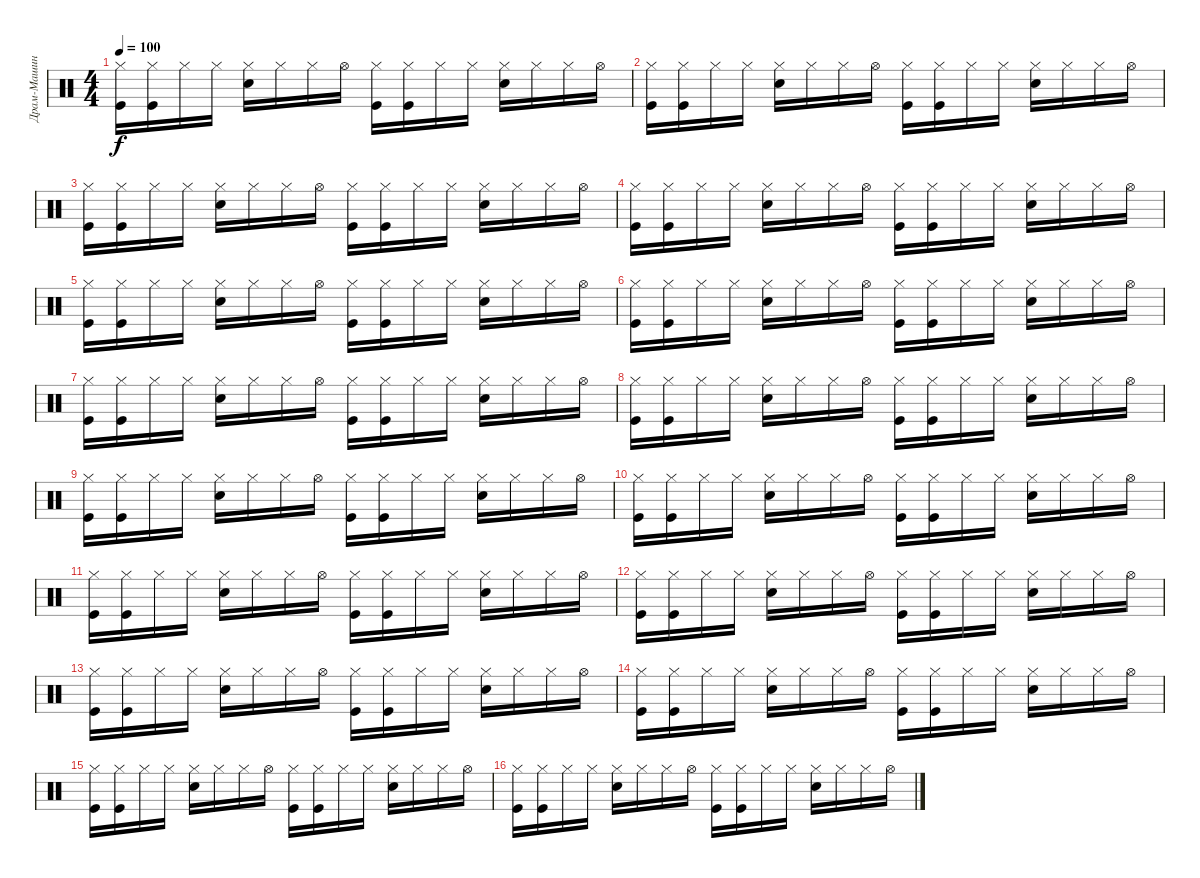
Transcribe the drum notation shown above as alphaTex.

\track ("Драм-Машина" "Драм-Машин") {instrument percussion}
\staff {score}
\articulation defaults
\ts (4 4)
\tempo 100
\clef neutral
\ks c
("Kick (hit)" "Hi-Hat (closed)").16{dy f} ("Kick (hit)" "Hi-Hat (closed)").16 "Hi-Hat (closed)".16 "Hi-Hat (closed)".16 ("Hi-Hat (closed)" "Electric Snare (hit)").16 "Hi-Hat (closed)".16 "Hi-Hat (closed)".16 "Hi-Hat (open)".16 ("Kick (hit)" "Hi-Hat (closed)").16 ("Kick (hit)" "Hi-Hat (closed)").16 "Hi-Hat (closed)".16 "Hi-Hat (closed)".16 ("Hi-Hat (closed)" "Electric Snare (hit)").16 "Hi-Hat (closed)".16 "Hi-Hat (closed)".16 "Hi-Hat (open)".16 |
("Kick (hit)" "Hi-Hat (closed)").16 ("Kick (hit)" "Hi-Hat (closed)").16 "Hi-Hat (closed)".16 "Hi-Hat (closed)".16 ("Hi-Hat (closed)" "Electric Snare (hit)").16 "Hi-Hat (closed)".16 "Hi-Hat (closed)".16 "Hi-Hat (open)".16 ("Kick (hit)" "Hi-Hat (closed)").16 ("Kick (hit)" "Hi-Hat (closed)").16 "Hi-Hat (closed)".16 "Hi-Hat (closed)".16 ("Hi-Hat (closed)" "Electric Snare (hit)").16 "Hi-Hat (closed)".16 "Hi-Hat (closed)".16 "Hi-Hat (open)".16 |
("Kick (hit)" "Hi-Hat (closed)").16 ("Kick (hit)" "Hi-Hat (closed)").16 "Hi-Hat (closed)".16 "Hi-Hat (closed)".16 ("Hi-Hat (closed)" "Electric Snare (hit)").16 "Hi-Hat (closed)".16 "Hi-Hat (closed)".16 "Hi-Hat (open)".16 ("Kick (hit)" "Hi-Hat (closed)").16 ("Kick (hit)" "Hi-Hat (closed)").16 "Hi-Hat (closed)".16 "Hi-Hat (closed)".16 ("Hi-Hat (closed)" "Electric Snare (hit)").16 "Hi-Hat (closed)".16 "Hi-Hat (closed)".16 "Hi-Hat (open)".16 |
("Kick (hit)" "Hi-Hat (closed)").16 ("Kick (hit)" "Hi-Hat (closed)").16 "Hi-Hat (closed)".16 "Hi-Hat (closed)".16 ("Hi-Hat (closed)" "Electric Snare (hit)").16 "Hi-Hat (closed)".16 "Hi-Hat (closed)".16 "Hi-Hat (open)".16 ("Kick (hit)" "Hi-Hat (closed)").16 ("Kick (hit)" "Hi-Hat (closed)").16 "Hi-Hat (closed)".16 "Hi-Hat (closed)".16 ("Hi-Hat (closed)" "Electric Snare (hit)").16 "Hi-Hat (closed)".16 "Hi-Hat (closed)".16 "Hi-Hat (open)".16 |
("Kick (hit)" "Hi-Hat (closed)").16 ("Kick (hit)" "Hi-Hat (closed)").16 "Hi-Hat (closed)".16 "Hi-Hat (closed)".16 ("Hi-Hat (closed)" "Electric Snare (hit)").16 "Hi-Hat (closed)".16 "Hi-Hat (closed)".16 "Hi-Hat (open)".16 ("Kick (hit)" "Hi-Hat (closed)").16 ("Kick (hit)" "Hi-Hat (closed)").16 "Hi-Hat (closed)".16 "Hi-Hat (closed)".16 ("Hi-Hat (closed)" "Electric Snare (hit)").16 "Hi-Hat (closed)".16 "Hi-Hat (closed)".16 "Hi-Hat (open)".16 |
("Kick (hit)" "Hi-Hat (closed)").16 ("Kick (hit)" "Hi-Hat (closed)").16 "Hi-Hat (closed)".16 "Hi-Hat (closed)".16 ("Hi-Hat (closed)" "Electric Snare (hit)").16 "Hi-Hat (closed)".16 "Hi-Hat (closed)".16 "Hi-Hat (open)".16 ("Kick (hit)" "Hi-Hat (closed)").16 ("Kick (hit)" "Hi-Hat (closed)").16 "Hi-Hat (closed)".16 "Hi-Hat (closed)".16 ("Hi-Hat (closed)" "Electric Snare (hit)").16 "Hi-Hat (closed)".16 "Hi-Hat (closed)".16 "Hi-Hat (open)".16 |
("Kick (hit)" "Hi-Hat (closed)").16 ("Kick (hit)" "Hi-Hat (closed)").16 "Hi-Hat (closed)".16 "Hi-Hat (closed)".16 ("Hi-Hat (closed)" "Electric Snare (hit)").16 "Hi-Hat (closed)".16 "Hi-Hat (closed)".16 "Hi-Hat (open)".16 ("Kick (hit)" "Hi-Hat (closed)").16 ("Kick (hit)" "Hi-Hat (closed)").16 "Hi-Hat (closed)".16 "Hi-Hat (closed)".16 ("Hi-Hat (closed)" "Electric Snare (hit)").16 "Hi-Hat (closed)".16 "Hi-Hat (closed)".16 "Hi-Hat (open)".16 |
("Kick (hit)" "Hi-Hat (closed)").16 ("Kick (hit)" "Hi-Hat (closed)").16 "Hi-Hat (closed)".16 "Hi-Hat (closed)".16 ("Hi-Hat (closed)" "Electric Snare (hit)").16 "Hi-Hat (closed)".16 "Hi-Hat (closed)".16 "Hi-Hat (open)".16 ("Kick (hit)" "Hi-Hat (closed)").16 ("Kick (hit)" "Hi-Hat (closed)").16 "Hi-Hat (closed)".16 "Hi-Hat (closed)".16 ("Hi-Hat (closed)" "Electric Snare (hit)").16 "Hi-Hat (closed)".16 "Hi-Hat (closed)".16 "Hi-Hat (open)".16 |
("Kick (hit)" "Hi-Hat (closed)").16 ("Kick (hit)" "Hi-Hat (closed)").16 "Hi-Hat (closed)".16 "Hi-Hat (closed)".16 ("Hi-Hat (closed)" "Electric Snare (hit)").16 "Hi-Hat (closed)".16 "Hi-Hat (closed)".16 "Hi-Hat (open)".16 ("Kick (hit)" "Hi-Hat (closed)").16 ("Kick (hit)" "Hi-Hat (closed)").16 "Hi-Hat (closed)".16 "Hi-Hat (closed)".16 ("Hi-Hat (closed)" "Electric Snare (hit)").16 "Hi-Hat (closed)".16 "Hi-Hat (closed)".16 "Hi-Hat (open)".16 |
("Kick (hit)" "Hi-Hat (closed)").16 ("Kick (hit)" "Hi-Hat (closed)").16 "Hi-Hat (closed)".16 "Hi-Hat (closed)".16 ("Hi-Hat (closed)" "Electric Snare (hit)").16 "Hi-Hat (closed)".16 "Hi-Hat (closed)".16 "Hi-Hat (open)".16 ("Kick (hit)" "Hi-Hat (closed)").16 ("Kick (hit)" "Hi-Hat (closed)").16 "Hi-Hat (closed)".16 "Hi-Hat (closed)".16 ("Hi-Hat (closed)" "Electric Snare (hit)").16 "Hi-Hat (closed)".16 "Hi-Hat (closed)".16 "Hi-Hat (open)".16 |
("Kick (hit)" "Hi-Hat (closed)").16 ("Kick (hit)" "Hi-Hat (closed)").16 "Hi-Hat (closed)".16 "Hi-Hat (closed)".16 ("Hi-Hat (closed)" "Electric Snare (hit)").16 "Hi-Hat (closed)".16 "Hi-Hat (closed)".16 "Hi-Hat (open)".16 ("Kick (hit)" "Hi-Hat (closed)").16 ("Kick (hit)" "Hi-Hat (closed)").16 "Hi-Hat (closed)".16 "Hi-Hat (closed)".16 ("Hi-Hat (closed)" "Electric Snare (hit)").16 "Hi-Hat (closed)".16 "Hi-Hat (closed)".16 "Hi-Hat (open)".16 |
("Kick (hit)" "Hi-Hat (closed)").16 ("Kick (hit)" "Hi-Hat (closed)").16 "Hi-Hat (closed)".16 "Hi-Hat (closed)".16 ("Hi-Hat (closed)" "Electric Snare (hit)").16 "Hi-Hat (closed)".16 "Hi-Hat (closed)".16 "Hi-Hat (open)".16 ("Kick (hit)" "Hi-Hat (closed)").16 ("Kick (hit)" "Hi-Hat (closed)").16 "Hi-Hat (closed)".16 "Hi-Hat (closed)".16 ("Hi-Hat (closed)" "Electric Snare (hit)").16 "Hi-Hat (closed)".16 "Hi-Hat (closed)".16 "Hi-Hat (open)".16 |
("Kick (hit)" "Hi-Hat (closed)").16 ("Kick (hit)" "Hi-Hat (closed)").16 "Hi-Hat (closed)".16 "Hi-Hat (closed)".16 ("Hi-Hat (closed)" "Electric Snare (hit)").16 "Hi-Hat (closed)".16 "Hi-Hat (closed)".16 "Hi-Hat (open)".16 ("Kick (hit)" "Hi-Hat (closed)").16 ("Kick (hit)" "Hi-Hat (closed)").16 "Hi-Hat (closed)".16 "Hi-Hat (closed)".16 ("Hi-Hat (closed)" "Electric Snare (hit)").16 "Hi-Hat (closed)".16 "Hi-Hat (closed)".16 "Hi-Hat (open)".16 |
("Kick (hit)" "Hi-Hat (closed)").16 ("Kick (hit)" "Hi-Hat (closed)").16 "Hi-Hat (closed)".16 "Hi-Hat (closed)".16 ("Hi-Hat (closed)" "Electric Snare (hit)").16 "Hi-Hat (closed)".16 "Hi-Hat (closed)".16 "Hi-Hat (open)".16 ("Kick (hit)" "Hi-Hat (closed)").16 ("Kick (hit)" "Hi-Hat (closed)").16 "Hi-Hat (closed)".16 "Hi-Hat (closed)".16 ("Hi-Hat (closed)" "Electric Snare (hit)").16 "Hi-Hat (closed)".16 "Hi-Hat (closed)".16 "Hi-Hat (open)".16 |
("Kick (hit)" "Hi-Hat (closed)").16 ("Kick (hit)" "Hi-Hat (closed)").16 "Hi-Hat (closed)".16 "Hi-Hat (closed)".16 ("Hi-Hat (closed)" "Electric Snare (hit)").16 "Hi-Hat (closed)".16 "Hi-Hat (closed)".16 "Hi-Hat (open)".16 ("Kick (hit)" "Hi-Hat (closed)").16 ("Kick (hit)" "Hi-Hat (closed)").16 "Hi-Hat (closed)".16 "Hi-Hat (closed)".16 ("Hi-Hat (closed)" "Electric Snare (hit)").16 "Hi-Hat (closed)".16 "Hi-Hat (closed)".16 "Hi-Hat (open)".16 |
("Kick (hit)" "Hi-Hat (closed)").16 ("Kick (hit)" "Hi-Hat (closed)").16 "Hi-Hat (closed)".16 "Hi-Hat (closed)".16 ("Hi-Hat (closed)" "Electric Snare (hit)").16 "Hi-Hat (closed)".16 "Hi-Hat (closed)".16 "Hi-Hat (open)".16 ("Kick (hit)" "Hi-Hat (closed)").16 ("Kick (hit)" "Hi-Hat (closed)").16 "Hi-Hat (closed)".16 "Hi-Hat (closed)".16 ("Hi-Hat (closed)" "Electric Snare (hit)").16 "Hi-Hat (closed)".16 "Hi-Hat (closed)".16 "Hi-Hat (open)".16
